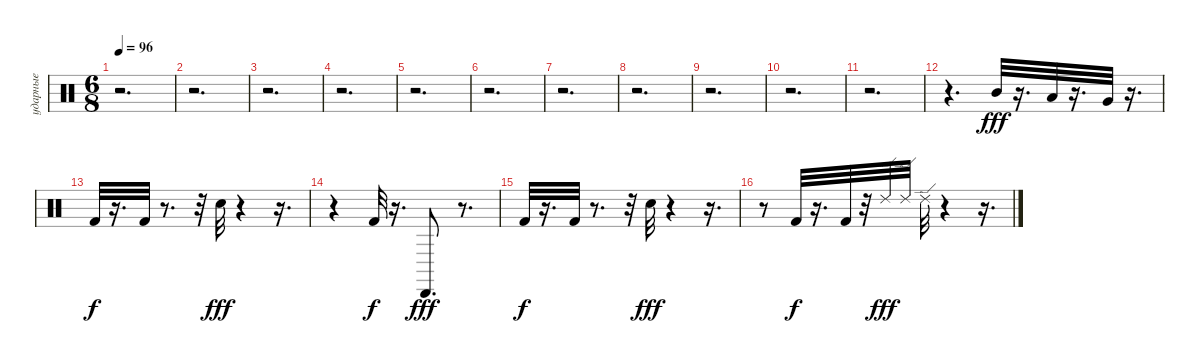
\track ("ударные" "ударные") {instrument percussion}
\staff {score}
\articulation defaults
\ts (6 8)
\tempo 96
\clef neutral
\ks c
r.2{d dy fff} |
r.2{d} |
r.2{d} |
r.2{d} |
r.2{d} |
r.2{d} |
r.2{d} |
r.2{d} |
r.2{d} |
r.2{d} |
r.2{d} |
r.4{d} "Mid Tom (hit)".32{balance 12} r.16{d} "Low Tom (hit)".32{balance 8} r.16{d} "Very Low Tom (hit)".32{balance 4} r.16{d} |
"Kick (hit) 2".32{dy f balance 8} r.16{d} "Kick (hit) 2".32 r.8{d} r.32 "Snare (hit) 2".32{dy fff} r.4 r.16{d} |
r.4 "Kick (hit) 2".32{dy f} r.16{d} "Cabasa (hit)".8{d dy fff} r.8{d} |
"Kick (hit) 2".32{dy f} r.16{d} "Kick (hit) 2".32 r.8{d} r.32 "Snare (hit) 2".32{dy fff} r.4 r.16{d} |
r.8 "Kick (hit) 2".32{dy f} r.16{d} "Kick (hit) 2".32 r.32 "Ride (edge) 2".32{dy fff} "Ride (edge) 2".32 "Ride (edge) 2".32 r.4 r.16{d}
